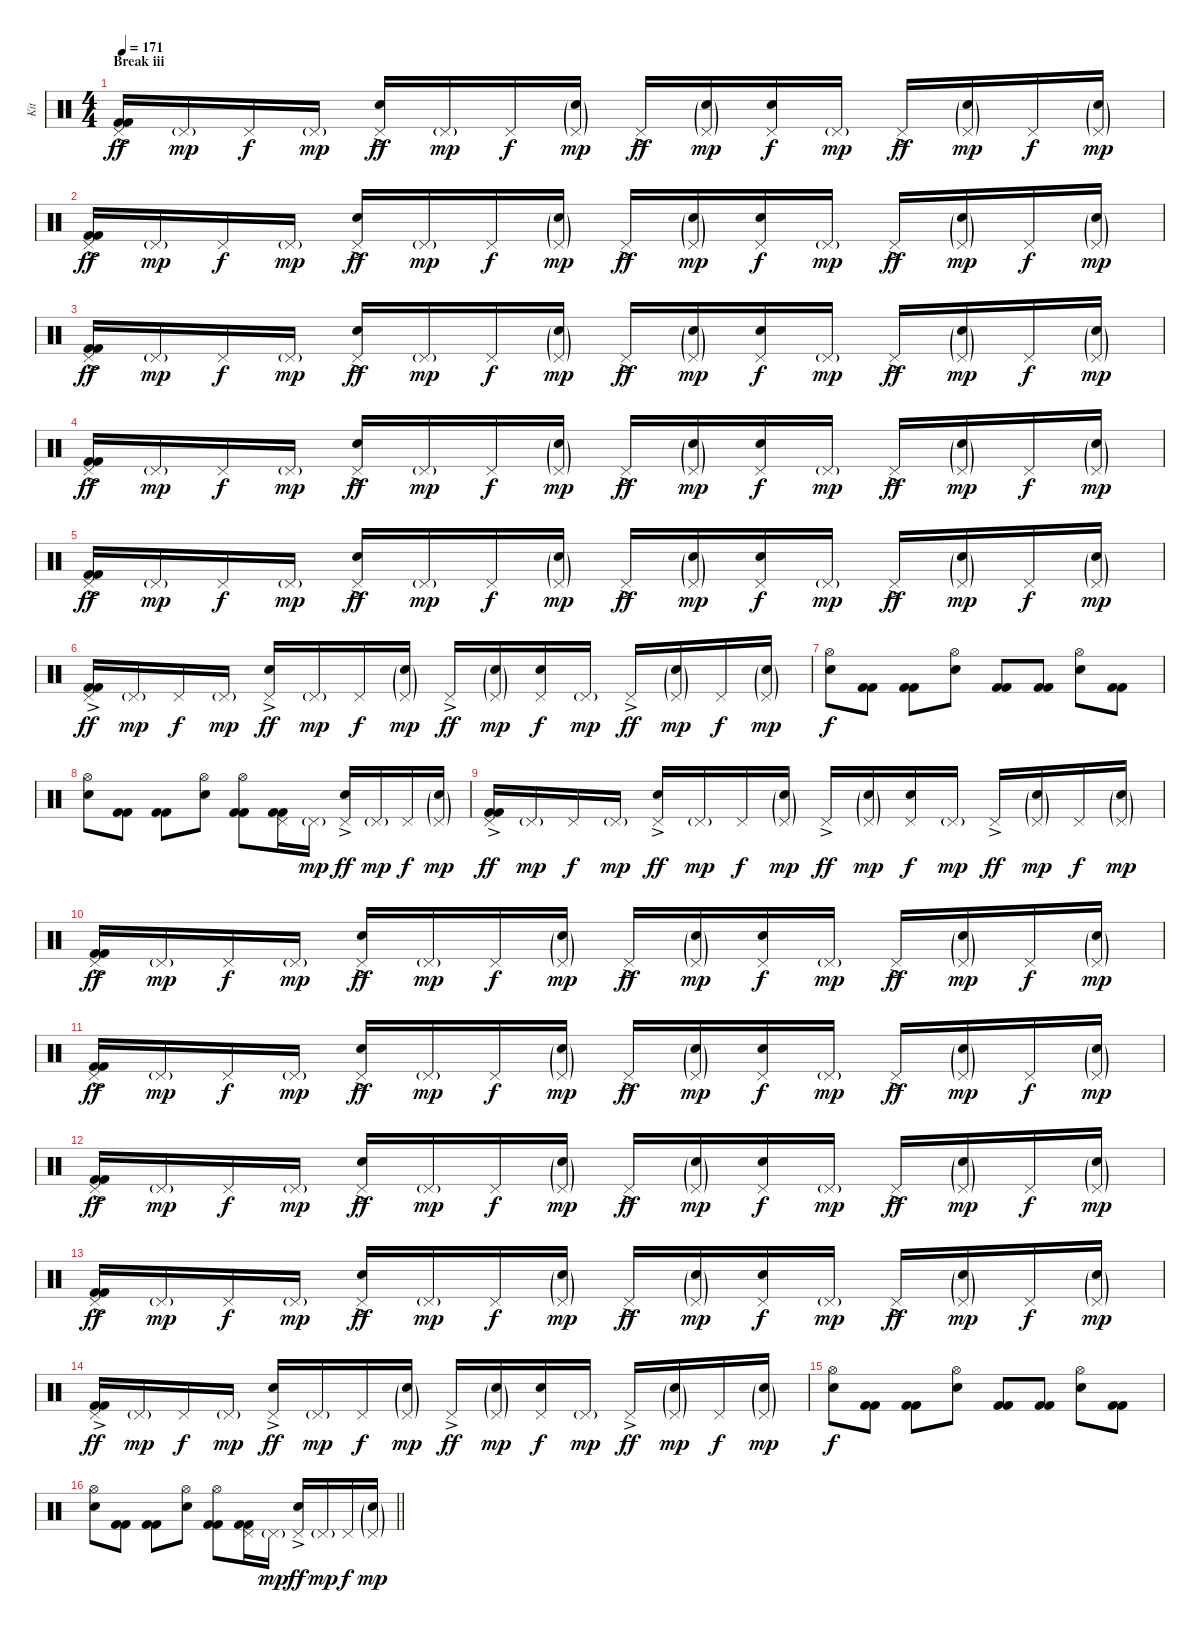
\track ("Kit" "Kit") {instrument percussion}
\staff {score}
\articulation defaults
\ts (4 4)
\section ("" "Break iii")
\tempo 171
\clef neutral
\ks c
("Pedal Hi-Hat (hit)"{ac} "Kick (hit) 2" "Kick (hit) 2").16{dy ff} "Pedal Hi-Hat (hit)"{g}.16{dy mp} "Pedal Hi-Hat (hit)".16{dy f} "Pedal Hi-Hat (hit)"{g}.16{dy mp} ("Pedal Hi-Hat (hit)"{ac} "Electric Snare (hit)").16{dy ff} "Pedal Hi-Hat (hit)"{g}.16{dy mp} "Pedal Hi-Hat (hit)".16{dy f} ("Pedal Hi-Hat (hit)"{g} "Electric Snare (hit)"{g}).16{dy mp} "Pedal Hi-Hat (hit)"{ac}.16{dy ff} ("Pedal Hi-Hat (hit)"{g} "Electric Snare (hit)"{g}).16{dy mp} ("Pedal Hi-Hat (hit)" "Electric Snare (hit)").16{dy f} "Pedal Hi-Hat (hit)"{g}.16{dy mp} "Pedal Hi-Hat (hit)"{ac}.16{dy ff} ("Pedal Hi-Hat (hit)"{g} "Electric Snare (hit)"{g}).16{dy mp} "Pedal Hi-Hat (hit)".16{dy f} ("Pedal Hi-Hat (hit)"{g} "Electric Snare (hit)"{g}).16{dy mp} |
("Pedal Hi-Hat (hit)"{ac} "Kick (hit) 2" "Kick (hit) 2").16{dy ff} "Pedal Hi-Hat (hit)"{g}.16{dy mp} "Pedal Hi-Hat (hit)".16{dy f} "Pedal Hi-Hat (hit)"{g}.16{dy mp} ("Pedal Hi-Hat (hit)"{ac} "Electric Snare (hit)").16{dy ff} "Pedal Hi-Hat (hit)"{g}.16{dy mp} "Pedal Hi-Hat (hit)".16{dy f} ("Pedal Hi-Hat (hit)"{g} "Electric Snare (hit)"{g}).16{dy mp} "Pedal Hi-Hat (hit)"{ac}.16{dy ff} ("Pedal Hi-Hat (hit)"{g} "Electric Snare (hit)"{g}).16{dy mp} ("Pedal Hi-Hat (hit)" "Electric Snare (hit)").16{dy f} "Pedal Hi-Hat (hit)"{g}.16{dy mp} "Pedal Hi-Hat (hit)"{ac}.16{dy ff} ("Pedal Hi-Hat (hit)"{g} "Electric Snare (hit)"{g}).16{dy mp} "Pedal Hi-Hat (hit)".16{dy f} ("Pedal Hi-Hat (hit)"{g} "Electric Snare (hit)"{g}).16{dy mp} |
("Pedal Hi-Hat (hit)"{ac} "Kick (hit) 2" "Kick (hit) 2").16{dy ff} "Pedal Hi-Hat (hit)"{g}.16{dy mp} "Pedal Hi-Hat (hit)".16{dy f} "Pedal Hi-Hat (hit)"{g}.16{dy mp} ("Pedal Hi-Hat (hit)"{ac} "Electric Snare (hit)").16{dy ff} "Pedal Hi-Hat (hit)"{g}.16{dy mp} "Pedal Hi-Hat (hit)".16{dy f} ("Pedal Hi-Hat (hit)"{g} "Electric Snare (hit)"{g}).16{dy mp} "Pedal Hi-Hat (hit)"{ac}.16{dy ff} ("Pedal Hi-Hat (hit)"{g} "Electric Snare (hit)"{g}).16{dy mp} ("Pedal Hi-Hat (hit)" "Electric Snare (hit)").16{dy f} "Pedal Hi-Hat (hit)"{g}.16{dy mp} "Pedal Hi-Hat (hit)"{ac}.16{dy ff} ("Pedal Hi-Hat (hit)"{g} "Electric Snare (hit)"{g}).16{dy mp} "Pedal Hi-Hat (hit)".16{dy f} ("Pedal Hi-Hat (hit)"{g} "Electric Snare (hit)"{g}).16{dy mp} |
("Pedal Hi-Hat (hit)"{ac} "Kick (hit) 2" "Kick (hit) 2").16{dy ff} "Pedal Hi-Hat (hit)"{g}.16{dy mp} "Pedal Hi-Hat (hit)".16{dy f} "Pedal Hi-Hat (hit)"{g}.16{dy mp} ("Pedal Hi-Hat (hit)"{ac} "Electric Snare (hit)").16{dy ff} "Pedal Hi-Hat (hit)"{g}.16{dy mp} "Pedal Hi-Hat (hit)".16{dy f} ("Pedal Hi-Hat (hit)"{g} "Electric Snare (hit)"{g}).16{dy mp} "Pedal Hi-Hat (hit)"{ac}.16{dy ff} ("Pedal Hi-Hat (hit)"{g} "Electric Snare (hit)"{g}).16{dy mp} ("Pedal Hi-Hat (hit)" "Electric Snare (hit)").16{dy f} "Pedal Hi-Hat (hit)"{g}.16{dy mp} "Pedal Hi-Hat (hit)"{ac}.16{dy ff} ("Pedal Hi-Hat (hit)"{g} "Electric Snare (hit)"{g}).16{dy mp} "Pedal Hi-Hat (hit)".16{dy f} ("Pedal Hi-Hat (hit)"{g} "Electric Snare (hit)"{g}).16{dy mp} |
("Pedal Hi-Hat (hit)"{ac} "Kick (hit) 2" "Kick (hit) 2").16{dy ff} "Pedal Hi-Hat (hit)"{g}.16{dy mp} "Pedal Hi-Hat (hit)".16{dy f} "Pedal Hi-Hat (hit)"{g}.16{dy mp} ("Pedal Hi-Hat (hit)"{ac} "Electric Snare (hit)").16{dy ff} "Pedal Hi-Hat (hit)"{g}.16{dy mp} "Pedal Hi-Hat (hit)".16{dy f} ("Pedal Hi-Hat (hit)"{g} "Electric Snare (hit)"{g}).16{dy mp} "Pedal Hi-Hat (hit)"{ac}.16{dy ff} ("Pedal Hi-Hat (hit)"{g} "Electric Snare (hit)"{g}).16{dy mp} ("Pedal Hi-Hat (hit)" "Electric Snare (hit)").16{dy f} "Pedal Hi-Hat (hit)"{g}.16{dy mp} "Pedal Hi-Hat (hit)"{ac}.16{dy ff} ("Pedal Hi-Hat (hit)"{g} "Electric Snare (hit)"{g}).16{dy mp} "Pedal Hi-Hat (hit)".16{dy f} ("Pedal Hi-Hat (hit)"{g} "Electric Snare (hit)"{g}).16{dy mp} |
("Pedal Hi-Hat (hit)"{ac} "Kick (hit) 2" "Kick (hit) 2").16{dy ff} "Pedal Hi-Hat (hit)"{g}.16{dy mp} "Pedal Hi-Hat (hit)".16{dy f} "Pedal Hi-Hat (hit)"{g}.16{dy mp} ("Pedal Hi-Hat (hit)"{ac} "Electric Snare (hit)").16{dy ff} "Pedal Hi-Hat (hit)"{g}.16{dy mp} "Pedal Hi-Hat (hit)".16{dy f} ("Pedal Hi-Hat (hit)"{g} "Electric Snare (hit)"{g}).16{dy mp} "Pedal Hi-Hat (hit)"{ac}.16{dy ff} ("Pedal Hi-Hat (hit)"{g} "Electric Snare (hit)"{g}).16{dy mp} ("Pedal Hi-Hat (hit)" "Electric Snare (hit)").16{dy f} "Pedal Hi-Hat (hit)"{g}.16{dy mp} "Pedal Hi-Hat (hit)"{ac}.16{dy ff} ("Pedal Hi-Hat (hit)"{g} "Electric Snare (hit)"{g}).16{dy mp} "Pedal Hi-Hat (hit)".16{dy f} ("Pedal Hi-Hat (hit)"{g} "Electric Snare (hit)"{g}).16{dy mp} |
("Hi-Hat (open)" "Electric Snare (hit)").8{dy f} ("Kick (hit) 2" "Kick (hit) 2").8 ("Kick (hit) 2" "Kick (hit) 2").8 ("Hi-Hat (open)" "Electric Snare (hit)").8 ("Kick (hit) 2" "Kick (hit) 2").8 ("Kick (hit) 2" "Kick (hit) 2").8 ("Hi-Hat (open)" "Electric Snare (hit)").8 ("Kick (hit) 2" "Kick (hit) 2").8 |
("Hi-Hat (open)" "Electric Snare (hit)").8 ("Kick (hit) 2" "Kick (hit) 2").8 ("Kick (hit) 2" "Kick (hit) 2").8 ("Hi-Hat (open)" "Electric Snare (hit)").8 ("Hi-Hat (open)" "Kick (hit) 2" "Kick (hit) 2").8 ("Pedal Hi-Hat (hit)" "Kick (hit) 2" "Kick (hit) 2").16 "Pedal Hi-Hat (hit)"{g}.16{dy mp} ("Pedal Hi-Hat (hit)"{ac} "Electric Snare (hit)").16{dy ff} "Pedal Hi-Hat (hit)"{g}.16{dy mp} "Pedal Hi-Hat (hit)".16{dy f} ("Pedal Hi-Hat (hit)"{g} "Electric Snare (hit)"{g}).16{dy mp} |
("Pedal Hi-Hat (hit)"{ac} "Kick (hit) 2" "Kick (hit) 2").16{dy ff} "Pedal Hi-Hat (hit)"{g}.16{dy mp} "Pedal Hi-Hat (hit)".16{dy f} "Pedal Hi-Hat (hit)"{g}.16{dy mp} ("Pedal Hi-Hat (hit)"{ac} "Electric Snare (hit)").16{dy ff} "Pedal Hi-Hat (hit)"{g}.16{dy mp} "Pedal Hi-Hat (hit)".16{dy f} ("Pedal Hi-Hat (hit)"{g} "Electric Snare (hit)"{g}).16{dy mp} "Pedal Hi-Hat (hit)"{ac}.16{dy ff} ("Pedal Hi-Hat (hit)"{g} "Electric Snare (hit)"{g}).16{dy mp} ("Pedal Hi-Hat (hit)" "Electric Snare (hit)").16{dy f} "Pedal Hi-Hat (hit)"{g}.16{dy mp} "Pedal Hi-Hat (hit)"{ac}.16{dy ff} ("Pedal Hi-Hat (hit)"{g} "Electric Snare (hit)"{g}).16{dy mp} "Pedal Hi-Hat (hit)".16{dy f} ("Pedal Hi-Hat (hit)"{g} "Electric Snare (hit)"{g}).16{dy mp} |
("Pedal Hi-Hat (hit)"{ac} "Kick (hit) 2" "Kick (hit) 2").16{dy ff} "Pedal Hi-Hat (hit)"{g}.16{dy mp} "Pedal Hi-Hat (hit)".16{dy f} "Pedal Hi-Hat (hit)"{g}.16{dy mp} ("Pedal Hi-Hat (hit)"{ac} "Electric Snare (hit)").16{dy ff} "Pedal Hi-Hat (hit)"{g}.16{dy mp} "Pedal Hi-Hat (hit)".16{dy f} ("Pedal Hi-Hat (hit)"{g} "Electric Snare (hit)"{g}).16{dy mp} "Pedal Hi-Hat (hit)"{ac}.16{dy ff} ("Pedal Hi-Hat (hit)"{g} "Electric Snare (hit)"{g}).16{dy mp} ("Pedal Hi-Hat (hit)" "Electric Snare (hit)").16{dy f} "Pedal Hi-Hat (hit)"{g}.16{dy mp} "Pedal Hi-Hat (hit)"{ac}.16{dy ff} ("Pedal Hi-Hat (hit)"{g} "Electric Snare (hit)"{g}).16{dy mp} "Pedal Hi-Hat (hit)".16{dy f} ("Pedal Hi-Hat (hit)"{g} "Electric Snare (hit)"{g}).16{dy mp} |
("Pedal Hi-Hat (hit)"{ac} "Kick (hit) 2" "Kick (hit) 2").16{dy ff} "Pedal Hi-Hat (hit)"{g}.16{dy mp} "Pedal Hi-Hat (hit)".16{dy f} "Pedal Hi-Hat (hit)"{g}.16{dy mp} ("Pedal Hi-Hat (hit)"{ac} "Electric Snare (hit)").16{dy ff} "Pedal Hi-Hat (hit)"{g}.16{dy mp} "Pedal Hi-Hat (hit)".16{dy f} ("Pedal Hi-Hat (hit)"{g} "Electric Snare (hit)"{g}).16{dy mp} "Pedal Hi-Hat (hit)"{ac}.16{dy ff} ("Pedal Hi-Hat (hit)"{g} "Electric Snare (hit)"{g}).16{dy mp} ("Pedal Hi-Hat (hit)" "Electric Snare (hit)").16{dy f} "Pedal Hi-Hat (hit)"{g}.16{dy mp} "Pedal Hi-Hat (hit)"{ac}.16{dy ff} ("Pedal Hi-Hat (hit)"{g} "Electric Snare (hit)"{g}).16{dy mp} "Pedal Hi-Hat (hit)".16{dy f} ("Pedal Hi-Hat (hit)"{g} "Electric Snare (hit)"{g}).16{dy mp} |
("Pedal Hi-Hat (hit)"{ac} "Kick (hit) 2" "Kick (hit) 2").16{dy ff} "Pedal Hi-Hat (hit)"{g}.16{dy mp} "Pedal Hi-Hat (hit)".16{dy f} "Pedal Hi-Hat (hit)"{g}.16{dy mp} ("Pedal Hi-Hat (hit)"{ac} "Electric Snare (hit)").16{dy ff} "Pedal Hi-Hat (hit)"{g}.16{dy mp} "Pedal Hi-Hat (hit)".16{dy f} ("Pedal Hi-Hat (hit)"{g} "Electric Snare (hit)"{g}).16{dy mp} "Pedal Hi-Hat (hit)"{ac}.16{dy ff} ("Pedal Hi-Hat (hit)"{g} "Electric Snare (hit)"{g}).16{dy mp} ("Pedal Hi-Hat (hit)" "Electric Snare (hit)").16{dy f} "Pedal Hi-Hat (hit)"{g}.16{dy mp} "Pedal Hi-Hat (hit)"{ac}.16{dy ff} ("Pedal Hi-Hat (hit)"{g} "Electric Snare (hit)"{g}).16{dy mp} "Pedal Hi-Hat (hit)".16{dy f} ("Pedal Hi-Hat (hit)"{g} "Electric Snare (hit)"{g}).16{dy mp} |
("Pedal Hi-Hat (hit)"{ac} "Kick (hit) 2" "Kick (hit) 2").16{dy ff} "Pedal Hi-Hat (hit)"{g}.16{dy mp} "Pedal Hi-Hat (hit)".16{dy f} "Pedal Hi-Hat (hit)"{g}.16{dy mp} ("Pedal Hi-Hat (hit)"{ac} "Electric Snare (hit)").16{dy ff} "Pedal Hi-Hat (hit)"{g}.16{dy mp} "Pedal Hi-Hat (hit)".16{dy f} ("Pedal Hi-Hat (hit)"{g} "Electric Snare (hit)"{g}).16{dy mp} "Pedal Hi-Hat (hit)"{ac}.16{dy ff} ("Pedal Hi-Hat (hit)"{g} "Electric Snare (hit)"{g}).16{dy mp} ("Pedal Hi-Hat (hit)" "Electric Snare (hit)").16{dy f} "Pedal Hi-Hat (hit)"{g}.16{dy mp} "Pedal Hi-Hat (hit)"{ac}.16{dy ff} ("Pedal Hi-Hat (hit)"{g} "Electric Snare (hit)"{g}).16{dy mp} "Pedal Hi-Hat (hit)".16{dy f} ("Pedal Hi-Hat (hit)"{g} "Electric Snare (hit)"{g}).16{dy mp} |
("Pedal Hi-Hat (hit)"{ac} "Kick (hit) 2" "Kick (hit) 2").16{dy ff} "Pedal Hi-Hat (hit)"{g}.16{dy mp} "Pedal Hi-Hat (hit)".16{dy f} "Pedal Hi-Hat (hit)"{g}.16{dy mp} ("Pedal Hi-Hat (hit)"{ac} "Electric Snare (hit)").16{dy ff} "Pedal Hi-Hat (hit)"{g}.16{dy mp} "Pedal Hi-Hat (hit)".16{dy f} ("Pedal Hi-Hat (hit)"{g} "Electric Snare (hit)"{g}).16{dy mp} "Pedal Hi-Hat (hit)"{ac}.16{dy ff} ("Pedal Hi-Hat (hit)"{g} "Electric Snare (hit)"{g}).16{dy mp} ("Pedal Hi-Hat (hit)" "Electric Snare (hit)").16{dy f} "Pedal Hi-Hat (hit)"{g}.16{dy mp} "Pedal Hi-Hat (hit)"{ac}.16{dy ff} ("Pedal Hi-Hat (hit)"{g} "Electric Snare (hit)"{g}).16{dy mp} "Pedal Hi-Hat (hit)".16{dy f} ("Pedal Hi-Hat (hit)"{g} "Electric Snare (hit)"{g}).16{dy mp} |
("Hi-Hat (open)" "Electric Snare (hit)").8{dy f} ("Kick (hit) 2" "Kick (hit) 2").8 ("Kick (hit) 2" "Kick (hit) 2").8 ("Hi-Hat (open)" "Electric Snare (hit)").8 ("Kick (hit) 2" "Kick (hit) 2").8 ("Kick (hit) 2" "Kick (hit) 2").8 ("Hi-Hat (open)" "Electric Snare (hit)").8 ("Kick (hit) 2" "Kick (hit) 2").8 |
\barLineRight lightlight
("Hi-Hat (open)" "Electric Snare (hit)").8 ("Kick (hit) 2" "Kick (hit) 2").8 ("Kick (hit) 2" "Kick (hit) 2").8 ("Hi-Hat (open)" "Electric Snare (hit)").8 ("Hi-Hat (open)" "Kick (hit) 2" "Kick (hit) 2").8 ("Pedal Hi-Hat (hit)" "Kick (hit) 2" "Kick (hit) 2").16 "Pedal Hi-Hat (hit)"{g}.16{dy mp} ("Pedal Hi-Hat (hit)"{ac} "Electric Snare (hit)").16{dy ff} "Pedal Hi-Hat (hit)"{g}.16{dy mp} "Pedal Hi-Hat (hit)".16{dy f} ("Pedal Hi-Hat (hit)"{g} "Electric Snare (hit)"{g}).16{dy mp}
